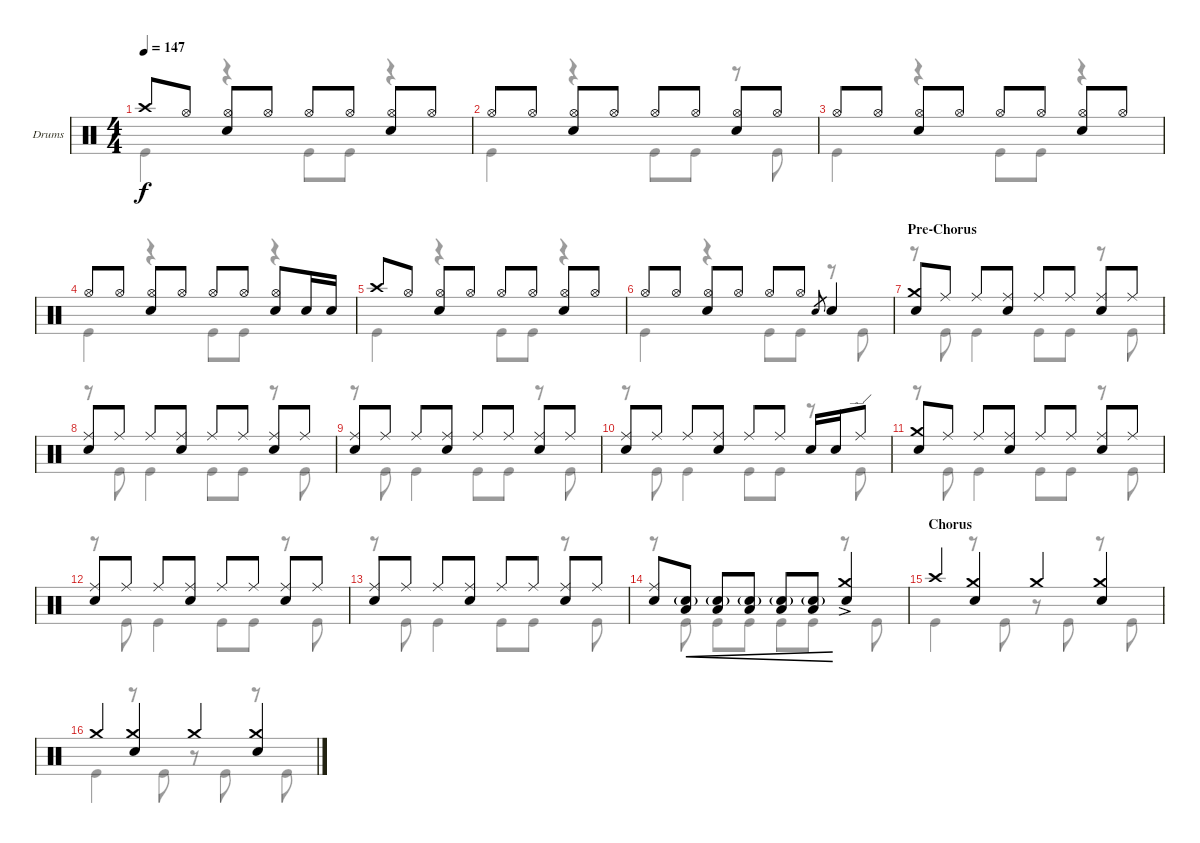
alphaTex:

\defaultSystemsLayout 4
\bracketExtendMode groupsimilarinstruments
\firstSystemTrackNameOrientation horizontal
\otherSystemsTrackNameOrientation horizontal
\track ("Drums" "Drums") {instrument percussion}
\staff {score}
\articulation defaults
\voice
\ts (4 4)
\tempo 147
\clef neutral
\ks c "Crash high (hit)".8{dy f} "Hi-Hat (open)".8
("Hi-Hat (open)" "Snare (hit) 2").8 "Hi-Hat (open)".8 "Hi-Hat (open)".8 "Hi-Hat (open)".8 ("Hi-Hat (open)" "Snare (hit) 2").8 "Hi-Hat (open)".8 |
"Hi-Hat (open)".8 "Hi-Hat (open)".8 ("Hi-Hat (open)" "Snare (hit) 2").8 "Hi-Hat (open)".8 "Hi-Hat (open)".8 "Hi-Hat (open)".8 ("Hi-Hat (open)" "Snare (hit) 2").8 "Hi-Hat (open)".8 |
"Hi-Hat (open)".8 "Hi-Hat (open)".8 ("Hi-Hat (open)" "Snare (hit) 2").8 "Hi-Hat (open)".8 "Hi-Hat (open)".8 "Hi-Hat (open)".8 ("Hi-Hat (open)" "Snare (hit) 2").8 "Hi-Hat (open)".8 |
"Hi-Hat (open)".8 "Hi-Hat (open)".8 ("Hi-Hat (open)" "Snare (hit) 2").8 "Hi-Hat (open)".8 "Hi-Hat (open)".8 "Hi-Hat (open)".8 ("Hi-Hat (open)" "Snare (hit) 2").8 "Snare (hit) 2".16 "Snare (hit) 2".16 |
"Crash high (hit)".8 "Hi-Hat (open)".8 ("Hi-Hat (open)" "Snare (hit) 2").8 "Hi-Hat (open)".8 "Hi-Hat (open)".8 "Hi-Hat (open)".8 ("Hi-Hat (open)" "Snare (hit) 2").8 "Hi-Hat (open)".8 |
"Hi-Hat (open)".8 "Hi-Hat (open)".8 ("Hi-Hat (open)" "Snare (hit) 2").8 "Hi-Hat (open)".8 "Hi-Hat (open)".8 "Hi-Hat (open)".8 "Snare (hit) 2".8{gr} "Snare (hit) 2".4 |
\section ("" "Pre-Chorus")
("Snare (hit) 2" "Crash medium (hit)").8 "Ride (middle)".8 "Ride (middle)".8 ("Ride (middle)" "Snare (hit) 2").8 "Ride (middle)".8 "Ride (middle)".8 ("Ride (middle)" "Snare (hit) 2").8 "Ride (middle)".8 |
("Ride (middle)" "Snare (hit) 2").8 "Ride (middle)".8 "Ride (middle)".8 ("Ride (middle)" "Snare (hit) 2").8 "Ride (middle)".8 "Ride (middle)".8 ("Ride (middle)" "Snare (hit) 2").8 "Ride (middle)".8 |
("Ride (middle)" "Snare (hit) 2").8 "Ride (middle)".8 "Ride (middle)".8 ("Ride (middle)" "Snare (hit) 2").8 "Ride (middle)".8 "Ride (middle)".8 ("Ride (middle)" "Snare (hit) 2").8 "Ride (middle)".8 |
("Ride (middle)" "Snare (hit) 2").8 "Ride (middle)".8 "Ride (middle)".8 ("Ride (middle)" "Snare (hit) 2").8 "Ride (middle)".8 "Ride (middle)".8 "Snare (hit) 2".16 "Snare (hit) 2".16 "Ride (edge)".8 |
("Snare (hit) 2" "Crash medium (hit)").8 "Ride (middle)".8 "Ride (middle)".8 ("Ride (middle)" "Snare (hit) 2").8 "Ride (middle)".8 "Ride (middle)".8 ("Ride (middle)" "Snare (hit) 2").8 "Ride (middle)".8 |
("Ride (middle)" "Snare (hit) 2").8 "Ride (middle)".8 "Ride (middle)".8 ("Ride (middle)" "Snare (hit) 2").8 "Ride (middle)".8 "Ride (middle)".8 ("Ride (middle)" "Snare (hit) 2").8 "Ride (middle)".8 |
("Ride (middle)" "Snare (hit) 2").8 "Ride (middle)".8 "Ride (middle)".8 ("Ride (middle)" "Snare (hit) 2").8 "Ride (middle)".8 "Ride (middle)".8 ("Ride (middle)" "Snare (hit) 2").8 "Ride (middle)".8 |
("Ride (middle)" "Snare (hit) 2").8 ("Low Tom (hit)" "Snare (hit) 2"{g}).8{cre} ("Low Tom (hit)" "Snare (hit) 2"{g}).8{cre} ("Low Tom (hit)" "Snare (hit) 2"{g}).8{cre} ("Low Tom (hit)" "Snare (hit) 2"{g}).8{cre} ("Low Tom (hit)" "Snare (hit) 2"{g}).8{cre} ("Snare (hit) 2"{ac} "Crash medium (hit)").4 |
\section ("" "Chorus")
"Crash high (hit)".4 ("Crash medium (hit)" "Snare (hit) 2").4 "Crash medium (hit)".4 ("Crash medium (hit)" "Snare (hit) 2").4 |
"Crash medium (hit)".4 ("Crash medium (hit)" "Snare (hit) 2").4 "Crash medium (hit)".4 ("Crash medium (hit)" "Snare (hit) 2").4
\voice
\clef neutral
\ottava regular
\simile none
\ks c "Kick (hit)".4{dy f}
r.4 "Kick (hit)".8 "Kick (hit)".8 r.4 |
"Kick (hit)".4 r.4 "Kick (hit)".8 "Kick (hit)".8 r.8 "Kick (hit)".8 |
"Kick (hit)".4 r.4 "Kick (hit)".8 "Kick (hit)".8 r.4 |
"Kick (hit)".4 r.4 "Kick (hit)".8 "Kick (hit)".8 r.4 |
"Kick (hit)".4 r.4 "Kick (hit)".8 "Kick (hit)".8 r.4 |
"Kick (hit)".4 r.4 "Kick (hit)".8 "Kick (hit)".8 r.8 "Kick (hit)".8 |
r.8 "Kick (hit)".8 "Kick (hit)".4 "Kick (hit)".8 "Kick (hit)".8 r.8 "Kick (hit)".8 |
r.8 "Kick (hit)".8 "Kick (hit)".4 "Kick (hit)".8 "Kick (hit)".8 r.8 "Kick (hit)".8 |
r.8 "Kick (hit)".8 "Kick (hit)".4 "Kick (hit)".8 "Kick (hit)".8 r.8 "Kick (hit)".8 |
r.8 "Kick (hit)".8 "Kick (hit)".4 "Kick (hit)".8 "Kick (hit)".8 r.8 "Kick (hit)".8 |
r.8 "Kick (hit)".8 "Kick (hit)".4 "Kick (hit)".8 "Kick (hit)".8 r.8 "Kick (hit)".8 |
r.8 "Kick (hit)".8 "Kick (hit)".4 "Kick (hit)".8 "Kick (hit)".8 r.8 "Kick (hit)".8 |
r.8 "Kick (hit)".8 "Kick (hit)".4 "Kick (hit)".8 "Kick (hit)".8 r.8 "Kick (hit)".8 |
r.8 "Kick (hit)".8 "Kick (hit)".8 "Kick (hit)".8 "Kick (hit)".8 "Kick (hit)".8 r.8 "Kick (hit)".8 |
"Kick (hit)".4 r.8 "Kick (hit)".8 r.8 "Kick (hit)".8 r.8 "Kick (hit)".8 |
"Kick (hit)".4 r.8 "Kick (hit)".8 r.8 "Kick (hit)".8 r.8 "Kick (hit)".8
